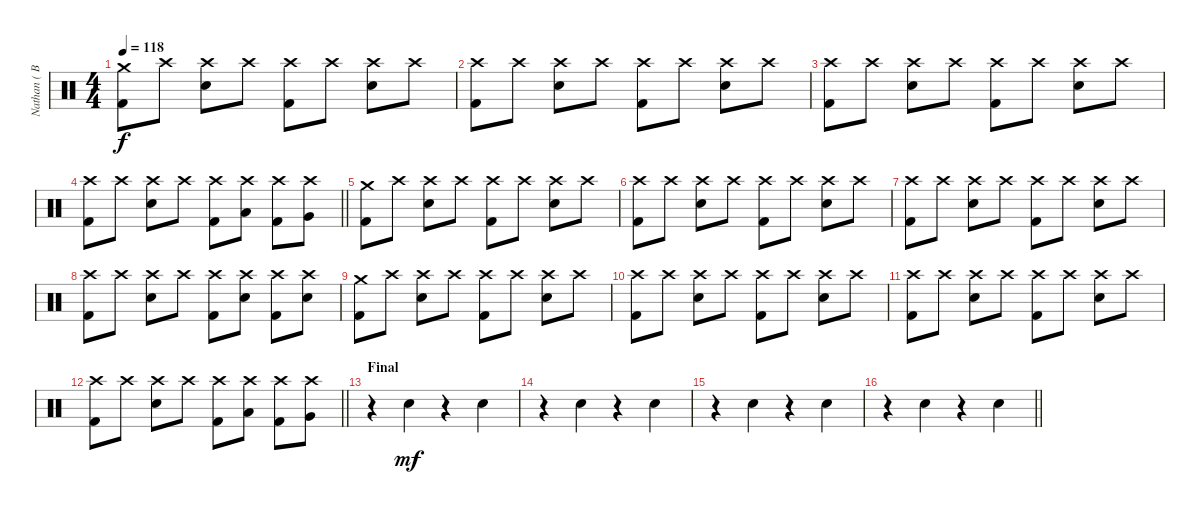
\track ("Nathan ( Bateria )" "Nathan ( B") {instrument percussion}
\staff {score}
\articulation defaults
\ts (4 4)
\tempo 118
\clef neutral
\ks c
("Crash medium (hit)" "Kick (hit) 2").8{dy f} "Crash high (hit)".8 ("Crash high (hit)" "Electric Snare (hit)").8 "Crash high (hit)".8 ("Crash high (hit)" "Kick (hit) 2").8 "Crash high (hit)".8 ("Crash high (hit)" "Electric Snare (hit)").8 "Crash high (hit)".8 |
("Crash high (hit)" "Kick (hit) 2").8 "Crash high (hit)".8 ("Crash high (hit)" "Electric Snare (hit)").8 "Crash high (hit)".8 ("Crash high (hit)" "Kick (hit) 2").8 "Crash high (hit)".8 ("Crash high (hit)" "Electric Snare (hit)").8 "Crash high (hit)".8 |
("Crash high (hit)" "Kick (hit) 2").8 "Crash high (hit)".8 ("Crash high (hit)" "Electric Snare (hit)").8 "Crash high (hit)".8 ("Crash high (hit)" "Kick (hit) 2").8 "Crash high (hit)".8 ("Crash high (hit)" "Electric Snare (hit)").8 "Crash high (hit)".8 |
\barLineRight lightlight
("Crash high (hit)" "Kick (hit) 2").8 "Crash high (hit)".8 ("Crash high (hit)" "Electric Snare (hit)").8 "Crash high (hit)".8 ("Crash high (hit)" "Kick (hit) 2").8 ("Crash high (hit)" "Low Tom (hit)").8 ("Crash high (hit)" "Kick (hit) 2").8 ("Crash high (hit)" "Very Low Tom (hit)").8 |
("Crash medium (hit)" "Kick (hit) 2").8 "Crash high (hit)".8 ("Crash high (hit)" "Electric Snare (hit)").8 "Crash high (hit)".8 ("Crash high (hit)" "Kick (hit) 2").8 "Crash high (hit)".8 ("Crash high (hit)" "Electric Snare (hit)").8 "Crash high (hit)".8 |
("Crash high (hit)" "Kick (hit) 2").8 "Crash high (hit)".8 ("Crash high (hit)" "Electric Snare (hit)").8 "Crash high (hit)".8 ("Crash high (hit)" "Kick (hit) 2").8 "Crash high (hit)".8 ("Crash high (hit)" "Electric Snare (hit)").8 "Crash high (hit)".8 |
("Crash high (hit)" "Kick (hit) 2").8 "Crash high (hit)".8 ("Crash high (hit)" "Electric Snare (hit)").8 "Crash high (hit)".8 ("Crash high (hit)" "Kick (hit) 2").8 "Crash high (hit)".8 ("Crash high (hit)" "Electric Snare (hit)").8 "Crash high (hit)".8 |
("Crash high (hit)" "Kick (hit) 2").8 "Crash high (hit)".8 ("Crash high (hit)" "Electric Snare (hit)").8 "Crash high (hit)".8 ("Crash high (hit)" "Kick (hit) 2").8 ("Crash high (hit)" "Electric Snare (hit)").8 ("Crash high (hit)" "Kick (hit) 2").8 ("Crash high (hit)" "Electric Snare (hit)").8 |
("Crash medium (hit)" "Kick (hit) 2").8 "Crash high (hit)".8 ("Crash high (hit)" "Electric Snare (hit)").8 "Crash high (hit)".8 ("Crash high (hit)" "Kick (hit) 2").8 "Crash high (hit)".8 ("Crash high (hit)" "Electric Snare (hit)").8 "Crash high (hit)".8 |
("Crash high (hit)" "Kick (hit) 2").8 "Crash high (hit)".8 ("Crash high (hit)" "Electric Snare (hit)").8 "Crash high (hit)".8 ("Crash high (hit)" "Kick (hit) 2").8 "Crash high (hit)".8 ("Crash high (hit)" "Electric Snare (hit)").8 "Crash high (hit)".8 |
("Crash high (hit)" "Kick (hit) 2").8 "Crash high (hit)".8 ("Crash high (hit)" "Electric Snare (hit)").8 "Crash high (hit)".8 ("Crash high (hit)" "Kick (hit) 2").8 "Crash high (hit)".8 ("Crash high (hit)" "Electric Snare (hit)").8 "Crash high (hit)".8 |
\barLineRight lightlight
("Crash high (hit)" "Kick (hit) 2").8 "Crash high (hit)".8 ("Crash high (hit)" "Electric Snare (hit)").8 "Crash high (hit)".8 ("Crash high (hit)" "Kick (hit) 2").8 ("Crash high (hit)" "Low Tom (hit)").8 ("Crash high (hit)" "Kick (hit) 2").8 ("Crash high (hit)" "Very Low Tom (hit)").8 |
\section ("" "Final")
r.4 "Hand Clap (hit)".4{dy mf} r.4 "Hand Clap (hit)".4 |
r.4 "Hand Clap (hit)".4 r.4 "Hand Clap (hit)".4 |
r.4 "Hand Clap (hit)".4 r.4 "Hand Clap (hit)".4 |
\barLineRight lightlight
r.4 "Hand Clap (hit)".4 r.4 "Hand Clap (hit)".4
